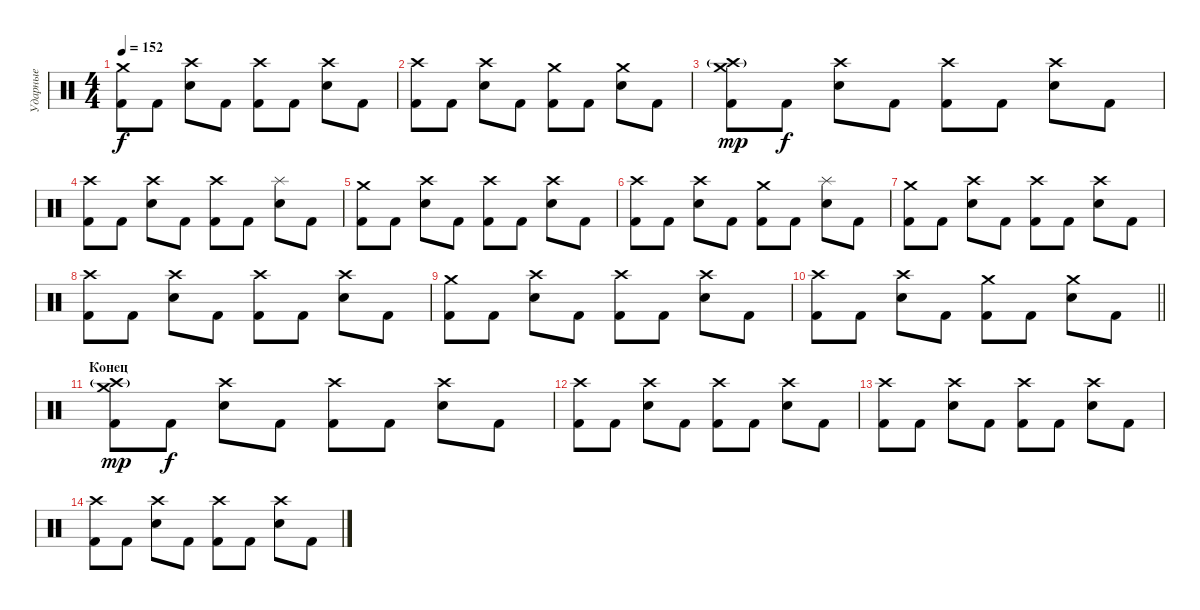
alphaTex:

\track ("Ударные" "Ударные") {instrument percussion}
\staff {score}
\articulation defaults
\ts (4 4)
\tempo 152
\clef neutral
\ks c
("Crash medium (hit)" "Kick (hit) 2").8{dy f} "Kick (hit) 2".8 ("Crash high (hit)" "Snare (hit) 2").8 "Kick (hit) 2".8 ("Crash high (hit)" "Kick (hit) 2").8 "Kick (hit) 2".8 ("Crash high (hit)" "Snare (hit) 2").8 "Kick (hit) 2".8 |
("Crash high (hit)" "Kick (hit) 2").8 "Kick (hit) 2".8 ("Crash high (hit)" "Snare (hit) 2").8 "Kick (hit) 2".8 ("Crash medium (hit)" "Kick (hit) 2").8 "Kick (hit) 2".8 ("Crash medium (hit)" "Snare (hit) 2").8 "Kick (hit) 2".8 |
("Crash medium (hit)" "Crash high (hit)"{g} "Kick (hit) 2").8{dy mp} "Kick (hit) 2".8{dy f} ("Crash high (hit)" "Snare (hit) 2").8 "Kick (hit) 2".8 ("Crash high (hit)" "Kick (hit) 2").8 "Kick (hit) 2".8 ("Crash high (hit)" "Snare (hit) 2").8 "Kick (hit) 2".8 |
("Crash high (hit)" "Kick (hit) 2").8 "Kick (hit) 2".8 ("Crash high (hit)" "Snare (hit) 2").8 "Kick (hit) 2".8 ("Crash high (hit)" "Kick (hit) 2").8 "Kick (hit) 2".8 ("Splash (hit)" "Snare (hit) 2").8 "Kick (hit) 2".8 |
("Crash medium (hit)" "Kick (hit) 2").8 "Kick (hit) 2".8 ("Crash high (hit)" "Snare (hit) 2").8 "Kick (hit) 2".8 ("Crash high (hit)" "Kick (hit) 2").8 "Kick (hit) 2".8 ("Crash high (hit)" "Snare (hit) 2").8 "Kick (hit) 2".8 |
("Crash high (hit)" "Kick (hit) 2").8 "Kick (hit) 2".8 ("Crash high (hit)" "Snare (hit) 2").8 "Kick (hit) 2".8 ("Crash medium (hit)" "Kick (hit) 2").8 "Kick (hit) 2".8 ("Splash (hit)" "Snare (hit) 2").8 "Kick (hit) 2".8 |
("Crash medium (hit)" "Kick (hit) 2").8 "Kick (hit) 2".8 ("Crash high (hit)" "Snare (hit) 2").8 "Kick (hit) 2".8 ("Crash high (hit)" "Kick (hit) 2").8 "Kick (hit) 2".8 ("Crash high (hit)" "Snare (hit) 2").8 "Kick (hit) 2".8 |
("Crash high (hit)" "Kick (hit) 2").8 "Kick (hit) 2".8 ("Crash high (hit)" "Snare (hit) 2").8 "Kick (hit) 2".8 ("Crash high (hit)" "Kick (hit) 2").8 "Kick (hit) 2".8 ("Crash high (hit)" "Snare (hit) 2").8 "Kick (hit) 2".8 |
("Crash medium (hit)" "Kick (hit) 2").8 "Kick (hit) 2".8 ("Crash high (hit)" "Snare (hit) 2").8 "Kick (hit) 2".8 ("Crash high (hit)" "Kick (hit) 2").8 "Kick (hit) 2".8 ("Crash high (hit)" "Snare (hit) 2").8 "Kick (hit) 2".8 |
\barLineRight lightlight
("Crash high (hit)" "Kick (hit) 2").8 "Kick (hit) 2".8 ("Crash high (hit)" "Snare (hit) 2").8 "Kick (hit) 2".8 ("Crash medium (hit)" "Kick (hit) 2").8 "Kick (hit) 2".8 ("Crash medium (hit)" "Snare (hit) 2").8 "Kick (hit) 2".8 |
\section ("" "Конец")
("Crash medium (hit)" "Crash high (hit)"{g} "Kick (hit) 2").8{dy mp} "Kick (hit) 2".8{dy f} ("Crash high (hit)" "Snare (hit) 2").8 "Kick (hit) 2".8 ("Crash high (hit)" "Kick (hit) 2").8 "Kick (hit) 2".8 ("Crash high (hit)" "Snare (hit) 2").8 "Kick (hit) 2".8 |
("Crash high (hit)" "Kick (hit) 2").8 "Kick (hit) 2".8 ("Crash high (hit)" "Snare (hit) 2").8 "Kick (hit) 2".8 ("Crash high (hit)" "Kick (hit) 2").8 "Kick (hit) 2".8 ("Crash high (hit)" "Snare (hit) 2").8 "Kick (hit) 2".8 |
("Crash high (hit)" "Kick (hit) 2").8 "Kick (hit) 2".8 ("Crash high (hit)" "Snare (hit) 2").8 "Kick (hit) 2".8 ("Crash high (hit)" "Kick (hit) 2").8 "Kick (hit) 2".8 ("Crash high (hit)" "Snare (hit) 2").8 "Kick (hit) 2".8 |
("Crash high (hit)" "Kick (hit) 2").8 "Kick (hit) 2".8 ("Crash high (hit)" "Snare (hit) 2").8 "Kick (hit) 2".8 ("Crash high (hit)" "Kick (hit) 2").8 "Kick (hit) 2".8 ("Crash high (hit)" "Snare (hit) 2").8 "Kick (hit) 2".8
